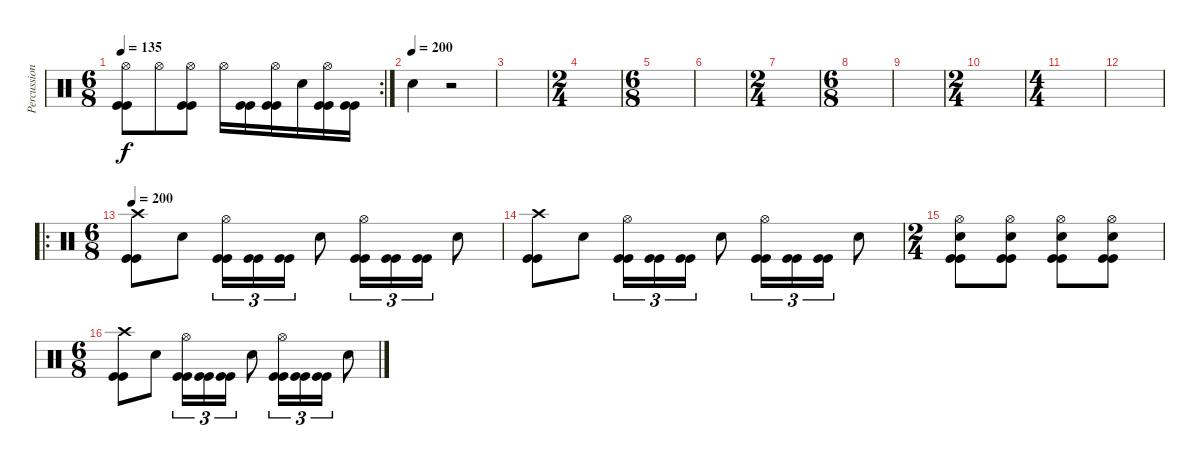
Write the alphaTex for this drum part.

\track ("Percussion" "Percussion") {instrument percussion}
\staff {score}
\articulation defaults
\rc 2
\ts (6 8)
\tempo 135
\clef neutral
\ks c
("Hi-Hat (open)" "Kick (hit)" "Kick (hit)").8{dy f} "Hi-Hat (open)".8 ("Hi-Hat (open)" "Kick (hit)" "Kick (hit)").8 "Hi-Hat (open)".16 ("Kick (hit)" "Kick (hit)").16 ("Hi-Hat (open)" "Kick (hit)" "Kick (hit)").16 "Snare (hit) 2".16 ("Hi-Hat (open)" "Kick (hit)" "Kick (hit)").16 ("Kick (hit)" "Kick (hit)").16 |
\tempo (200)
"Snare (hit) 2".4 r.2 |
|
\ts (2 4)
|
\ts (6 8)
|
|
\ts (2 4)
|
\ts (6 8)
|
|
\ts (2 4)
|
\ts (4 4)
|
|
\ro
\ts (6 8)
\tempo 200
("Crash high (hit)" "Kick (hit)" "Kick (hit)").8 "Snare (hit) 2".8 ("Hi-Hat (open)" "Kick (hit)" "Kick (hit)").16{tu (3 2)} ("Kick (hit)" "Kick (hit)").16{tu (3 2)} ("Kick (hit)" "Kick (hit)").16{tu (3 2)} "Snare (hit) 2".8 ("Hi-Hat (open)" "Kick (hit)" "Kick (hit)").16{tu (3 2)} ("Kick (hit)" "Kick (hit)").16{tu (3 2)} ("Kick (hit)" "Kick (hit)").16{tu (3 2)} "Snare (hit) 2".8 |
("Crash high (hit)" "Kick (hit)" "Kick (hit)").8 "Snare (hit) 2".8 ("Hi-Hat (open)" "Kick (hit)" "Kick (hit)").16{tu (3 2)} ("Kick (hit)" "Kick (hit)").16{tu (3 2)} ("Kick (hit)" "Kick (hit)").16{tu (3 2)} "Snare (hit) 2".8 ("Hi-Hat (open)" "Kick (hit)" "Kick (hit)").16{tu (3 2)} ("Kick (hit)" "Kick (hit)").16{tu (3 2)} ("Kick (hit)" "Kick (hit)").16{tu (3 2)} "Snare (hit) 2".8 |
\ts (2 4)
("Hi-Hat (open)" "Snare (hit) 2" "Kick (hit)" "Kick (hit)").8 ("Hi-Hat (open)" "Snare (hit) 2" "Kick (hit)" "Kick (hit)").8 ("Hi-Hat (open)" "Snare (hit) 2" "Kick (hit)" "Kick (hit)").8 ("Hi-Hat (open)" "Snare (hit) 2" "Kick (hit)" "Kick (hit)").8 |
\ts (6 8)
("Crash high (hit)" "Kick (hit)" "Kick (hit)").8 "Snare (hit) 2".8 ("Hi-Hat (open)" "Kick (hit)" "Kick (hit)").16{tu (3 2)} ("Kick (hit)" "Kick (hit)").16{tu (3 2)} ("Kick (hit)" "Kick (hit)").16{tu (3 2)} "Snare (hit) 2".8 ("Hi-Hat (open)" "Kick (hit)" "Kick (hit)").16{tu (3 2)} ("Kick (hit)" "Kick (hit)").16{tu (3 2)} ("Kick (hit)" "Kick (hit)").16{tu (3 2)} "Snare (hit) 2".8
